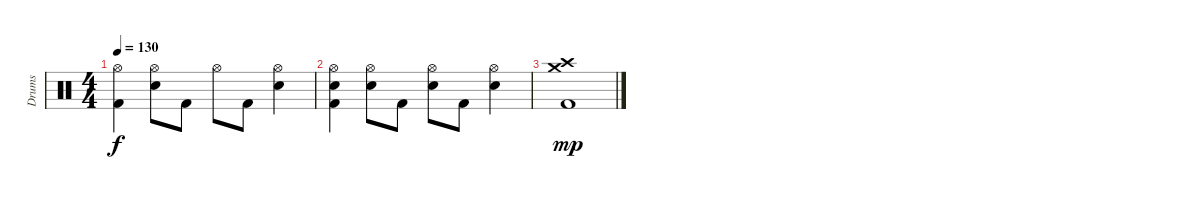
\track ("Drums" "Drums") {instrument percussion}
\staff {score}
\articulation defaults
\ts (4 4)
\tempo 130
\clef neutral
\ks c
("Hi-Hat (open)" "Kick (hit) 2").4{dy f} ("Hi-Hat (open)" "Snare (hit) 2").8 "Kick (hit) 2".8 "Hi-Hat (open)".8 "Kick (hit) 2".8 ("Hi-Hat (open)" "Snare (hit) 2").4 |
("Hi-Hat (open)" "Snare (hit) 2" "Kick (hit) 2").4 ("Hi-Hat (open)" "Snare (hit) 2").8 "Kick (hit) 2".8 ("Hi-Hat (open)" "Snare (hit) 2").8 "Kick (hit) 2".8 ("Hi-Hat (open)" "Snare (hit) 2").4 |
("Crash high (hit)" "Crash medium (hit)" "Kick (hit) 2").1{dy mp}
